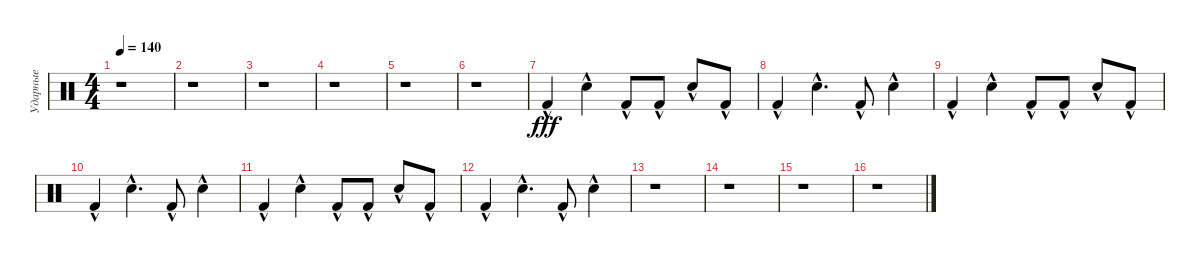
\track ("Ударные" "Ударные") {instrument percussion}
\staff {score}
\articulation defaults
\ts (4 4)
\tempo 140
\clef neutral
\ks c
r.1{dy fff} |
r.1 |
r.1 |
r.1 |
r.1 |
r.1 |
"Kick (hit) 2"{hac}.4 "Snare (hit) 2"{hac}.4 "Kick (hit) 2"{hac}.8 "Kick (hit) 2"{hac}.8 "Snare (hit) 2"{hac}.8 "Kick (hit) 2"{hac}.8 |
"Kick (hit) 2"{hac}.4 "Snare (hit) 2"{hac}.4{d} "Kick (hit) 2"{hac}.8 "Snare (hit) 2"{hac}.4 |
"Kick (hit) 2"{hac}.4 "Snare (hit) 2"{hac}.4 "Kick (hit) 2"{hac}.8 "Kick (hit) 2"{hac}.8 "Snare (hit) 2"{hac}.8 "Kick (hit) 2"{hac}.8 |
"Kick (hit) 2"{hac}.4 "Snare (hit) 2"{hac}.4{d} "Kick (hit) 2"{hac}.8 "Snare (hit) 2"{hac}.4 |
"Kick (hit) 2"{hac}.4 "Snare (hit) 2"{hac}.4 "Kick (hit) 2"{hac}.8 "Kick (hit) 2"{hac}.8 "Snare (hit) 2"{hac}.8 "Kick (hit) 2"{hac}.8 |
"Kick (hit) 2"{hac}.4 "Snare (hit) 2"{hac}.4{d} "Kick (hit) 2"{hac}.8 "Snare (hit) 2"{hac}.4 |
r.1 |
r.1 |
r.1 |
r.1
